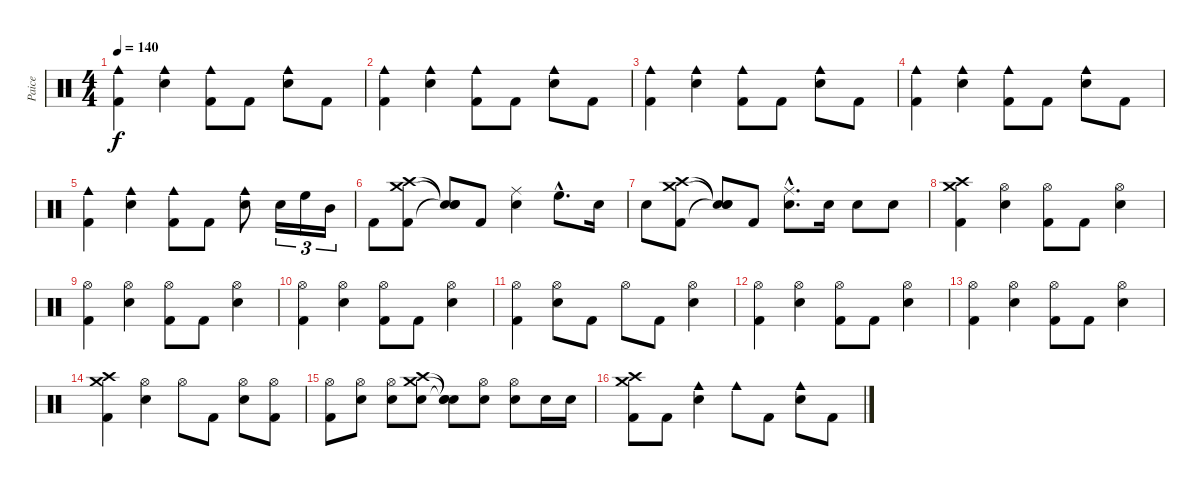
\track ("Paice" "Paice") {instrument percussion}
\staff {score}
\articulation defaults
\ts (4 4)
\tempo 140
\clef neutral
\ks c
("Cowbell medium (hit)" "Kick (hit) 2").4{dy f} ("Cowbell medium (hit)" "Electric Snare (hit)").4 ("Cowbell medium (hit)" "Kick (hit) 2").8 "Kick (hit) 2".8 ("Cowbell medium (hit)" "Electric Snare (hit)").8 "Kick (hit) 2".8 |
("Cowbell medium (hit)" "Kick (hit) 2").4 ("Cowbell medium (hit)" "Electric Snare (hit)").4 ("Cowbell medium (hit)" "Kick (hit) 2").8 "Kick (hit) 2".8 ("Cowbell medium (hit)" "Electric Snare (hit)").8 "Kick (hit) 2".8 |
("Cowbell medium (hit)" "Kick (hit) 2").4 ("Cowbell medium (hit)" "Electric Snare (hit)").4 ("Cowbell medium (hit)" "Kick (hit) 2").8 "Kick (hit) 2".8 ("Cowbell medium (hit)" "Electric Snare (hit)").8 "Kick (hit) 2".8 |
("Cowbell medium (hit)" "Kick (hit) 2").4 ("Cowbell medium (hit)" "Electric Snare (hit)").4 ("Cowbell medium (hit)" "Kick (hit) 2").8 "Kick (hit) 2".8 ("Cowbell medium (hit)" "Electric Snare (hit)").8 "Kick (hit) 2".8 |
("Cowbell medium (hit)" "Kick (hit) 2").4 ("Cowbell medium (hit)" "Electric Snare (hit)").4 ("Cowbell medium (hit)" "Kick (hit) 2").8 "Kick (hit) 2".8 ("Cowbell medium (hit)" "Electric Snare (hit)").8 "Electric Snare (hit)".16{tu (3 2)} "High Floor Tom (hit)".16{tu (3 2)} "Mid Tom (hit)".16{tu (3 2)} |
"Kick (hit) 2".8 ("Crash high (hit)" "Crash medium (hit)" "Kick (hit) 2").8 ("Snare (hit)"{t} "Snare (hit)"{t} "Snare (hit)"{t}).8 "Kick (hit) 2".8 ("Ride (middle)" "Electric Snare (hit)").4 "High Floor Tom (hit)"{hac}.8{d} "Electric Snare (hit)".16 |
"Electric Snare (hit)".8 ("Crash high (hit)" "Crash medium (hit)" "Kick (hit) 2").8 ("Snare (hit)"{t} "Snare (hit)"{t} "Snare (hit)"{t}).8 "Kick (hit) 2".8 ("Ride (middle)"{hac} "Electric Snare (hit)"{hac}).8{d} "Electric Snare (hit)".16 "Electric Snare (hit)".8 "Electric Snare (hit)".8 |
("Crash high (hit)" "Crash medium (hit)" "Kick (hit) 2").4 ("Hi-Hat (open)" "Electric Snare (hit)").4 ("Hi-Hat (open)" "Kick (hit) 2").8 "Kick (hit) 2".8 ("Hi-Hat (open)" "Electric Snare (hit)").4 |
("Hi-Hat (open)" "Kick (hit) 2").4 ("Hi-Hat (open)" "Electric Snare (hit)").4 ("Hi-Hat (open)" "Kick (hit) 2").8 "Kick (hit) 2".8 ("Hi-Hat (open)" "Electric Snare (hit)").4 |
("Hi-Hat (open)" "Kick (hit) 2").4 ("Hi-Hat (open)" "Electric Snare (hit)").4 ("Hi-Hat (open)" "Kick (hit) 2").8 "Kick (hit) 2".8 ("Hi-Hat (open)" "Electric Snare (hit)").4 |
("Hi-Hat (open)" "Kick (hit) 2").4 ("Hi-Hat (open)" "Electric Snare (hit)").8 "Kick (hit) 2".8 "Hi-Hat (open)".8 "Kick (hit) 2".8 ("Hi-Hat (open)" "Electric Snare (hit)").4 |
("Hi-Hat (open)" "Kick (hit) 2").4 ("Hi-Hat (open)" "Electric Snare (hit)").4 ("Hi-Hat (open)" "Kick (hit) 2").8 "Kick (hit) 2".8 ("Hi-Hat (open)" "Electric Snare (hit)").4 |
("Hi-Hat (open)" "Kick (hit) 2").4 ("Hi-Hat (open)" "Electric Snare (hit)").4 ("Hi-Hat (open)" "Kick (hit) 2").8 "Kick (hit) 2".8 ("Hi-Hat (open)" "Electric Snare (hit)").4 |
("Crash high (hit)" "Crash medium (hit)" "Kick (hit) 2").4 ("Hi-Hat (open)" "Electric Snare (hit)").4 "Hi-Hat (open)".8 "Kick (hit) 2".8 ("Hi-Hat (open)" "Electric Snare (hit)").8 ("Hi-Hat (open)" "Kick (hit) 2").8 |
("Hi-Hat (open)" "Kick (hit) 2").8 ("Hi-Hat (open)" "Electric Snare (hit)").8 ("Hi-Hat (open)" "Electric Snare (hit)").8 ("Crash high (hit)" "Crash medium (hit)" "Electric Snare (hit)").8 ("Snare (hit)"{t} "Snare (hit)"{t} "Snare (hit)"{t}).8 ("Hi-Hat (open)" "Electric Snare (hit)").8 ("Hi-Hat (open)" "Electric Snare (hit)").8 "Electric Snare (hit)".16 "Electric Snare (hit)".16 |
("Crash high (hit)" "Crash medium (hit)" "Kick (hit) 2").8 "Kick (hit) 2".8 ("Cowbell medium (hit)" "Electric Snare (hit)").4 "Cowbell medium (hit)".8 "Kick (hit) 2".8 ("Cowbell medium (hit)" "Electric Snare (hit)").8 "Kick (hit) 2".8
